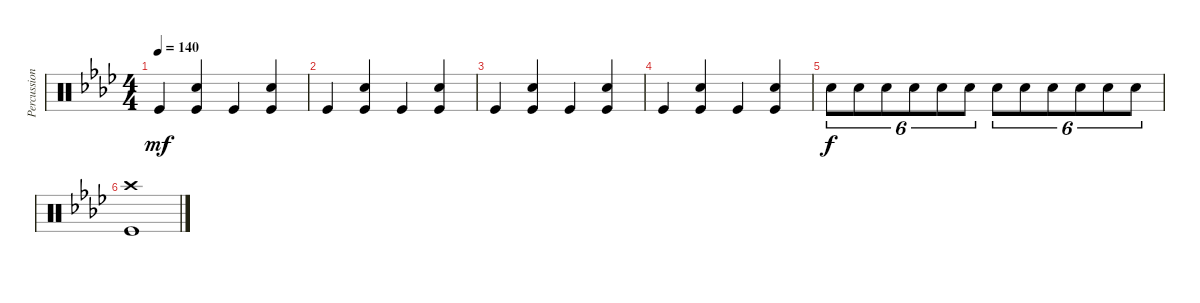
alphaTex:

\track ("Percussion" "Percussion") {instrument percussion}
\staff {score}
\articulation defaults
\ts (4 4)
\tempo 140
\clef neutral
\ks ab "Kick (hit)".4{dy mf}
("Snare (hit) 2" "Kick (hit)").4 "Kick (hit)".4 ("Snare (hit) 2" "Kick (hit)").4 |
"Kick (hit)".4 ("Snare (hit) 2" "Kick (hit)").4 "Kick (hit)".4 ("Snare (hit) 2" "Kick (hit)").4 |
"Kick (hit)".4 ("Snare (hit) 2" "Kick (hit)").4 "Kick (hit)".4 ("Snare (hit) 2" "Kick (hit)").4 |
"Kick (hit)".4 ("Snare (hit) 2" "Kick (hit)").4 "Kick (hit)".4 ("Snare (hit) 2" "Kick (hit)").4 |
"Snare (hit) 2".8{tu (6 4) dy f} "Snare (hit) 2".8{tu (6 4)} "Snare (hit) 2".8{tu (6 4)} "Snare (hit) 2".8{tu (6 4)} "Snare (hit) 2".8{tu (6 4)} "Snare (hit) 2".8{tu (6 4)} "Snare (hit) 2".8{tu (6 4)} "Snare (hit) 2".8{tu (6 4)} "Snare (hit) 2".8{tu (6 4)} "Snare (hit) 2".8{tu (6 4)} "Snare (hit) 2".8{tu (6 4)} "Snare (hit) 2".8{tu (6 4)} |
("Crash high (hit)" "Kick (hit)").1
